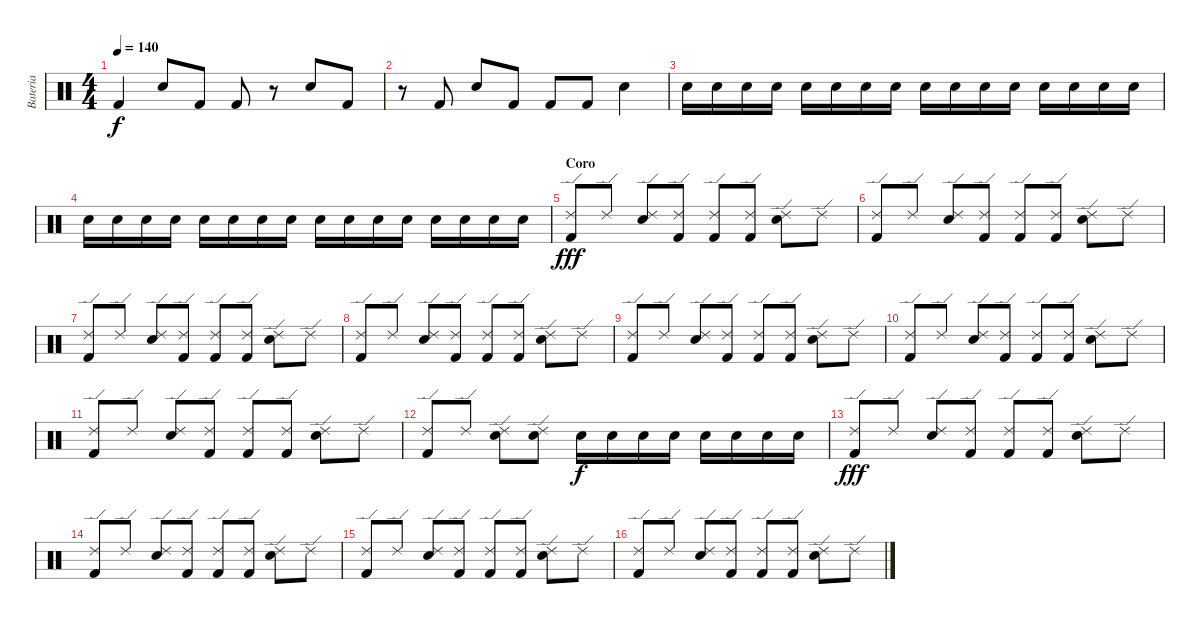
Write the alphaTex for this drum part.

\track ("Bateria" "Bateria") {instrument percussion}
\staff {score}
\articulation defaults
\ts (4 4)
\tempo 140
\clef neutral
\ks c "Kick (hit) 2".4{dy f} "Snare (hit) 2".8 "Kick (hit) 2".8 "Kick (hit) 2".8
r.8 "Snare (hit) 2".8 "Kick (hit) 2".8 |
r.8 "Kick (hit) 2".8 "Snare (hit) 2".8 "Kick (hit) 2".8 "Kick (hit) 2".8 "Kick (hit) 2".8 "Snare (hit) 2".4 |
"Snare (hit) 2".16{volume 6} "Snare (hit) 2".16 "Snare (hit) 2".16 "Snare (hit) 2".16 "Snare (hit) 2".16{volume 13} "Snare (hit) 2".16 "Snare (hit) 2".16 "Snare (hit) 2".16 "Snare (hit) 2".16 "Snare (hit) 2".16 "Snare (hit) 2".16 "Snare (hit) 2".16 "Snare (hit) 2".16 "Snare (hit) 2".16 "Snare (hit) 2".16 "Snare (hit) 2".16 |
"Snare (hit) 2".16 "Snare (hit) 2".16 "Snare (hit) 2".16 "Snare (hit) 2".16 "Snare (hit) 2".16 "Snare (hit) 2".16 "Snare (hit) 2".16 "Snare (hit) 2".16 "Snare (hit) 2".16 "Snare (hit) 2".16 "Snare (hit) 2".16 "Snare (hit) 2".16 "Snare (hit) 2".16 "Snare (hit) 2".16 "Snare (hit) 2".16 "Snare (hit) 2".16 |
\section ("" "Coro")
("Ride (edge) 2" "Kick (hit) 2").8{dy fff volume 13} "Ride (edge) 2".8 ("Ride (edge) 2" "Snare (hit) 2").8 ("Ride (edge) 2" "Kick (hit) 2").8 ("Ride (edge) 2" "Kick (hit) 2").8 ("Ride (edge) 2" "Kick (hit) 2").8 ("Ride (edge) 2" "Snare (hit) 2").8 "Ride (edge) 2".8 |
("Ride (edge) 2" "Kick (hit) 2").8 "Ride (edge) 2".8 ("Ride (edge) 2" "Snare (hit) 2").8 ("Ride (edge) 2" "Kick (hit) 2").8 ("Ride (edge) 2" "Kick (hit) 2").8 ("Ride (edge) 2" "Kick (hit) 2").8 ("Ride (edge) 2" "Snare (hit) 2").8 "Ride (edge) 2".8 |
("Ride (edge) 2" "Kick (hit) 2").8 "Ride (edge) 2".8 ("Ride (edge) 2" "Snare (hit) 2").8 ("Ride (edge) 2" "Kick (hit) 2").8 ("Ride (edge) 2" "Kick (hit) 2").8 ("Ride (edge) 2" "Kick (hit) 2").8 ("Ride (edge) 2" "Snare (hit) 2").8 "Ride (edge) 2".8 |
("Ride (edge) 2" "Kick (hit) 2").8 "Ride (edge) 2".8 ("Ride (edge) 2" "Snare (hit) 2").8 ("Ride (edge) 2" "Kick (hit) 2").8 ("Ride (edge) 2" "Kick (hit) 2").8 ("Ride (edge) 2" "Kick (hit) 2").8 ("Ride (edge) 2" "Snare (hit) 2").8 "Ride (edge) 2".8 |
("Ride (edge) 2" "Kick (hit) 2").8 "Ride (edge) 2".8 ("Ride (edge) 2" "Snare (hit) 2").8 ("Ride (edge) 2" "Kick (hit) 2").8 ("Ride (edge) 2" "Kick (hit) 2").8 ("Ride (edge) 2" "Kick (hit) 2").8 ("Ride (edge) 2" "Snare (hit) 2").8 "Ride (edge) 2".8 |
("Ride (edge) 2" "Kick (hit) 2").8 "Ride (edge) 2".8 ("Ride (edge) 2" "Snare (hit) 2").8 ("Ride (edge) 2" "Kick (hit) 2").8 ("Ride (edge) 2" "Kick (hit) 2").8 ("Ride (edge) 2" "Kick (hit) 2").8 ("Ride (edge) 2" "Snare (hit) 2").8 "Ride (edge) 2".8 |
("Ride (edge) 2" "Kick (hit) 2").8 "Ride (edge) 2".8 ("Ride (edge) 2" "Snare (hit) 2").8 ("Ride (edge) 2" "Kick (hit) 2").8 ("Ride (edge) 2" "Kick (hit) 2").8 ("Ride (edge) 2" "Kick (hit) 2").8 ("Ride (edge) 2" "Snare (hit) 2").8 "Ride (edge) 2".8 |
("Ride (edge) 2" "Kick (hit) 2").8 "Ride (edge) 2".8 ("Ride (edge) 2" "Snare (hit) 2").8 ("Ride (edge) 2" "Snare (hit) 2").8 "Snare (hit) 2".16{dy f} "Snare (hit) 2".16 "Snare (hit) 2".16 "Snare (hit) 2".16 "Snare (hit) 2".16 "Snare (hit) 2".16 "Snare (hit) 2".16 "Snare (hit) 2".16 |
("Ride (edge) 2" "Kick (hit) 2").8{dy fff} "Ride (edge) 2".8 ("Ride (edge) 2" "Snare (hit) 2").8 ("Ride (edge) 2" "Kick (hit) 2").8 ("Ride (edge) 2" "Kick (hit) 2").8 ("Ride (edge) 2" "Kick (hit) 2").8 ("Ride (edge) 2" "Snare (hit) 2").8 "Ride (edge) 2".8 |
("Ride (edge) 2" "Kick (hit) 2").8 "Ride (edge) 2".8 ("Ride (edge) 2" "Snare (hit) 2").8 ("Ride (edge) 2" "Kick (hit) 2").8 ("Ride (edge) 2" "Kick (hit) 2").8 ("Ride (edge) 2" "Kick (hit) 2").8 ("Ride (edge) 2" "Snare (hit) 2").8 "Ride (edge) 2".8 |
("Ride (edge) 2" "Kick (hit) 2").8 "Ride (edge) 2".8 ("Ride (edge) 2" "Snare (hit) 2").8 ("Ride (edge) 2" "Kick (hit) 2").8 ("Ride (edge) 2" "Kick (hit) 2").8 ("Ride (edge) 2" "Kick (hit) 2").8 ("Ride (edge) 2" "Snare (hit) 2").8 "Ride (edge) 2".8 |
("Ride (edge) 2" "Kick (hit) 2").8 "Ride (edge) 2".8 ("Ride (edge) 2" "Snare (hit) 2").8 ("Ride (edge) 2" "Kick (hit) 2").8 ("Ride (edge) 2" "Kick (hit) 2").8 ("Ride (edge) 2" "Kick (hit) 2").8 ("Ride (edge) 2" "Snare (hit) 2").8 "Ride (edge) 2".8
